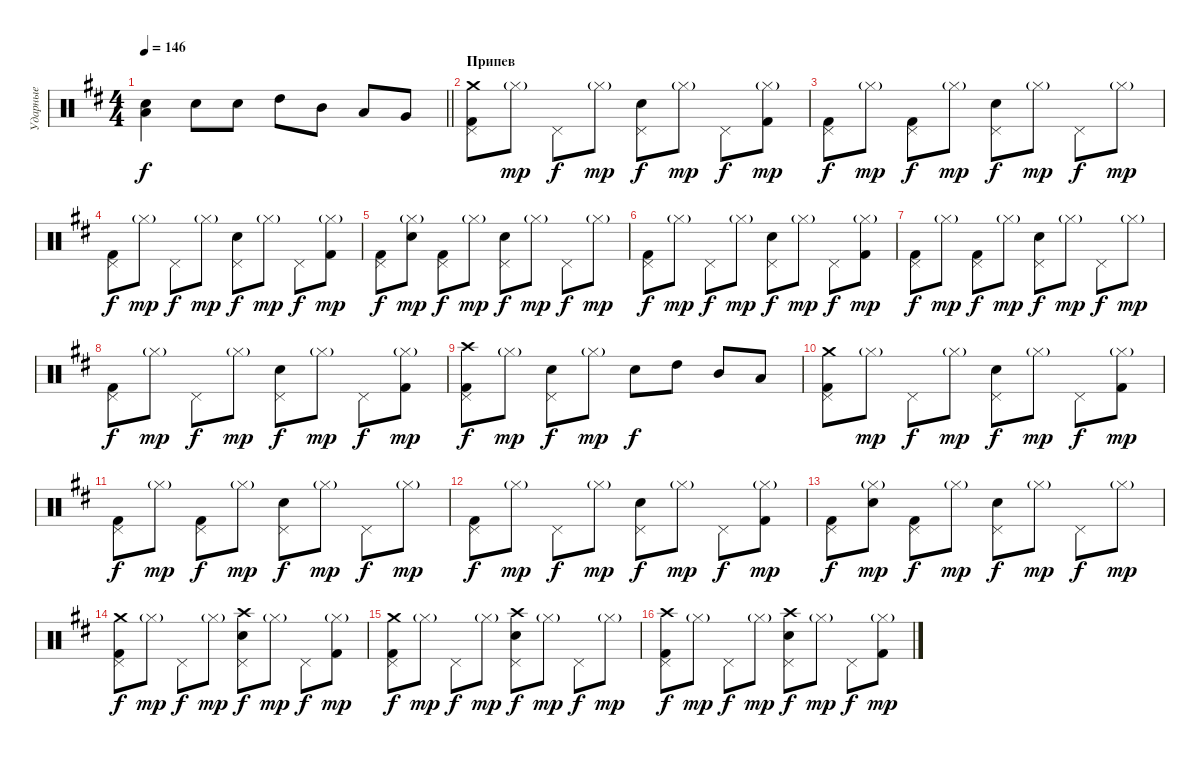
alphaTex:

\track ("Ударные" "Ударные") {instrument percussion}
\staff {score}
\articulation defaults
\ts (4 4)
\tempo 146
\clef neutral
\barLineRight lightlight
\ks bminor
("Electric Snare (hit)" "Low Tom (hit)").4{dy f} "Electric Snare (hit)".8 "Electric Snare (hit)".8 "High Tom (hit)".8 "Mid Tom (hit)".8 "Low Tom (hit)".8 "Very Low Tom (hit)".8 |
\section ("" "Припев")
("Crash medium (hit)" "Kick (hit) 2" "Pedal Hi-Hat (hit)").8 "Hi-Hat (closed)"{g}.8{dy mp} "Pedal Hi-Hat (hit)".8{dy f} "Hi-Hat (closed)"{g}.8{dy mp} ("Electric Snare (hit)" "Pedal Hi-Hat (hit)").8{dy f} "Hi-Hat (closed)"{g}.8{dy mp} "Pedal Hi-Hat (hit)".8{dy f} ("Kick (hit) 2" "Hi-Hat (closed)"{g}).8{dy mp} |
("Kick (hit) 2" "Pedal Hi-Hat (hit)").8{dy f} "Hi-Hat (closed)"{g}.8{dy mp} ("Kick (hit) 2" "Pedal Hi-Hat (hit)").8{dy f} "Hi-Hat (closed)"{g}.8{dy mp} ("Electric Snare (hit)" "Pedal Hi-Hat (hit)").8{dy f} "Hi-Hat (closed)"{g}.8{dy mp} "Pedal Hi-Hat (hit)".8{dy f} "Hi-Hat (closed)"{g}.8{dy mp} |
("Kick (hit) 2" "Pedal Hi-Hat (hit)").8{dy f} "Hi-Hat (closed)"{g}.8{dy mp} "Pedal Hi-Hat (hit)".8{dy f} "Hi-Hat (closed)"{g}.8{dy mp} ("Electric Snare (hit)" "Pedal Hi-Hat (hit)").8{dy f} "Hi-Hat (closed)"{g}.8{dy mp} "Pedal Hi-Hat (hit)".8{dy f} ("Kick (hit) 2" "Hi-Hat (closed)"{g}).8{dy mp} |
("Kick (hit) 2" "Pedal Hi-Hat (hit)").8{dy f} ("Electric Snare (hit)" "Hi-Hat (closed)"{g}).8{dy mp} ("Kick (hit) 2" "Pedal Hi-Hat (hit)").8{dy f} "Hi-Hat (closed)"{g}.8{dy mp} ("Electric Snare (hit)" "Pedal Hi-Hat (hit)").8{dy f} "Hi-Hat (closed)"{g}.8{dy mp} "Pedal Hi-Hat (hit)".8{dy f} "Hi-Hat (closed)"{g}.8{dy mp} |
("Kick (hit) 2" "Pedal Hi-Hat (hit)").8{dy f} "Hi-Hat (closed)"{g}.8{dy mp} "Pedal Hi-Hat (hit)".8{dy f} "Hi-Hat (closed)"{g}.8{dy mp} ("Electric Snare (hit)" "Pedal Hi-Hat (hit)").8{dy f} "Hi-Hat (closed)"{g}.8{dy mp} "Pedal Hi-Hat (hit)".8{dy f} ("Kick (hit) 2" "Hi-Hat (closed)"{g}).8{dy mp} |
("Kick (hit) 2" "Pedal Hi-Hat (hit)").8{dy f} "Hi-Hat (closed)"{g}.8{dy mp} ("Kick (hit) 2" "Pedal Hi-Hat (hit)").8{dy f} "Hi-Hat (closed)"{g}.8{dy mp} ("Electric Snare (hit)" "Pedal Hi-Hat (hit)").8{dy f} "Hi-Hat (closed)"{g}.8{dy mp} "Pedal Hi-Hat (hit)".8{dy f} "Hi-Hat (closed)"{g}.8{dy mp} |
("Kick (hit) 2" "Pedal Hi-Hat (hit)").8{dy f} "Hi-Hat (closed)"{g}.8{dy mp} "Pedal Hi-Hat (hit)".8{dy f} "Hi-Hat (closed)"{g}.8{dy mp} ("Electric Snare (hit)" "Pedal Hi-Hat (hit)").8{dy f} "Hi-Hat (closed)"{g}.8{dy mp} "Pedal Hi-Hat (hit)".8{dy f} ("Kick (hit) 2" "Hi-Hat (closed)"{g}).8{dy mp} |
("Crash high (hit)" "Kick (hit) 2" "Pedal Hi-Hat (hit)").8{dy f} "Hi-Hat (closed)"{g}.8{dy mp} ("Electric Snare (hit)" "Pedal Hi-Hat (hit)").8{dy f} "Hi-Hat (closed)"{g}.8{dy mp} "Electric Snare (hit)".8{dy f} "High Tom (hit)".8 "Mid Tom (hit)".8 "Low Tom (hit)".8 |
("Crash medium (hit)" "Kick (hit) 2" "Pedal Hi-Hat (hit)").8 "Hi-Hat (closed)"{g}.8{dy mp} "Pedal Hi-Hat (hit)".8{dy f} "Hi-Hat (closed)"{g}.8{dy mp} ("Electric Snare (hit)" "Pedal Hi-Hat (hit)").8{dy f} "Hi-Hat (closed)"{g}.8{dy mp} "Pedal Hi-Hat (hit)".8{dy f} ("Kick (hit) 2" "Hi-Hat (closed)"{g}).8{dy mp} |
("Kick (hit) 2" "Pedal Hi-Hat (hit)").8{dy f} "Hi-Hat (closed)"{g}.8{dy mp} ("Kick (hit) 2" "Pedal Hi-Hat (hit)").8{dy f} "Hi-Hat (closed)"{g}.8{dy mp} ("Electric Snare (hit)" "Pedal Hi-Hat (hit)").8{dy f} "Hi-Hat (closed)"{g}.8{dy mp} "Pedal Hi-Hat (hit)".8{dy f} "Hi-Hat (closed)"{g}.8{dy mp} |
("Kick (hit) 2" "Pedal Hi-Hat (hit)").8{dy f} "Hi-Hat (closed)"{g}.8{dy mp} "Pedal Hi-Hat (hit)".8{dy f} "Hi-Hat (closed)"{g}.8{dy mp} ("Electric Snare (hit)" "Pedal Hi-Hat (hit)").8{dy f} "Hi-Hat (closed)"{g}.8{dy mp} "Pedal Hi-Hat (hit)".8{dy f} ("Kick (hit) 2" "Hi-Hat (closed)"{g}).8{dy mp} |
("Kick (hit) 2" "Pedal Hi-Hat (hit)").8{dy f} ("Electric Snare (hit)" "Hi-Hat (closed)"{g}).8{dy mp} ("Kick (hit) 2" "Pedal Hi-Hat (hit)").8{dy f} "Hi-Hat (closed)"{g}.8{dy mp} ("Electric Snare (hit)" "Pedal Hi-Hat (hit)").8{dy f} "Hi-Hat (closed)"{g}.8{dy mp} "Pedal Hi-Hat (hit)".8{dy f} "Hi-Hat (closed)"{g}.8{dy mp} |
("Crash medium (hit)" "Kick (hit) 2" "Pedal Hi-Hat (hit)").8{dy f} "Hi-Hat (closed)"{g}.8{dy mp} "Pedal Hi-Hat (hit)".8{dy f} "Hi-Hat (closed)"{g}.8{dy mp} ("Crash high (hit)" "Electric Snare (hit)" "Pedal Hi-Hat (hit)").8{dy f} "Hi-Hat (closed)"{g}.8{dy mp} "Pedal Hi-Hat (hit)".8{dy f} ("Kick (hit) 2" "Hi-Hat (closed)"{g}).8{dy mp} |
("Crash medium (hit)" "Kick (hit) 2" "Pedal Hi-Hat (hit)").8{dy f} "Hi-Hat (closed)"{g}.8{dy mp} "Pedal Hi-Hat (hit)".8{dy f} "Hi-Hat (closed)"{g}.8{dy mp} ("Crash high (hit)" "Electric Snare (hit)" "Pedal Hi-Hat (hit)").8{dy f} "Hi-Hat (closed)"{g}.8{dy mp} "Pedal Hi-Hat (hit)".8{dy f} "Hi-Hat (closed)"{g}.8{dy mp} |
("Crash high (hit)" "Kick (hit) 2" "Pedal Hi-Hat (hit)").8{dy f} "Hi-Hat (closed)"{g}.8{dy mp} "Pedal Hi-Hat (hit)".8{dy f} "Hi-Hat (closed)"{g}.8{dy mp} ("Crash high (hit)" "Electric Snare (hit)" "Pedal Hi-Hat (hit)").8{dy f} "Hi-Hat (closed)"{g}.8{dy mp} "Pedal Hi-Hat (hit)".8{dy f} ("Kick (hit) 2" "Hi-Hat (closed)"{g}).8{dy mp}
